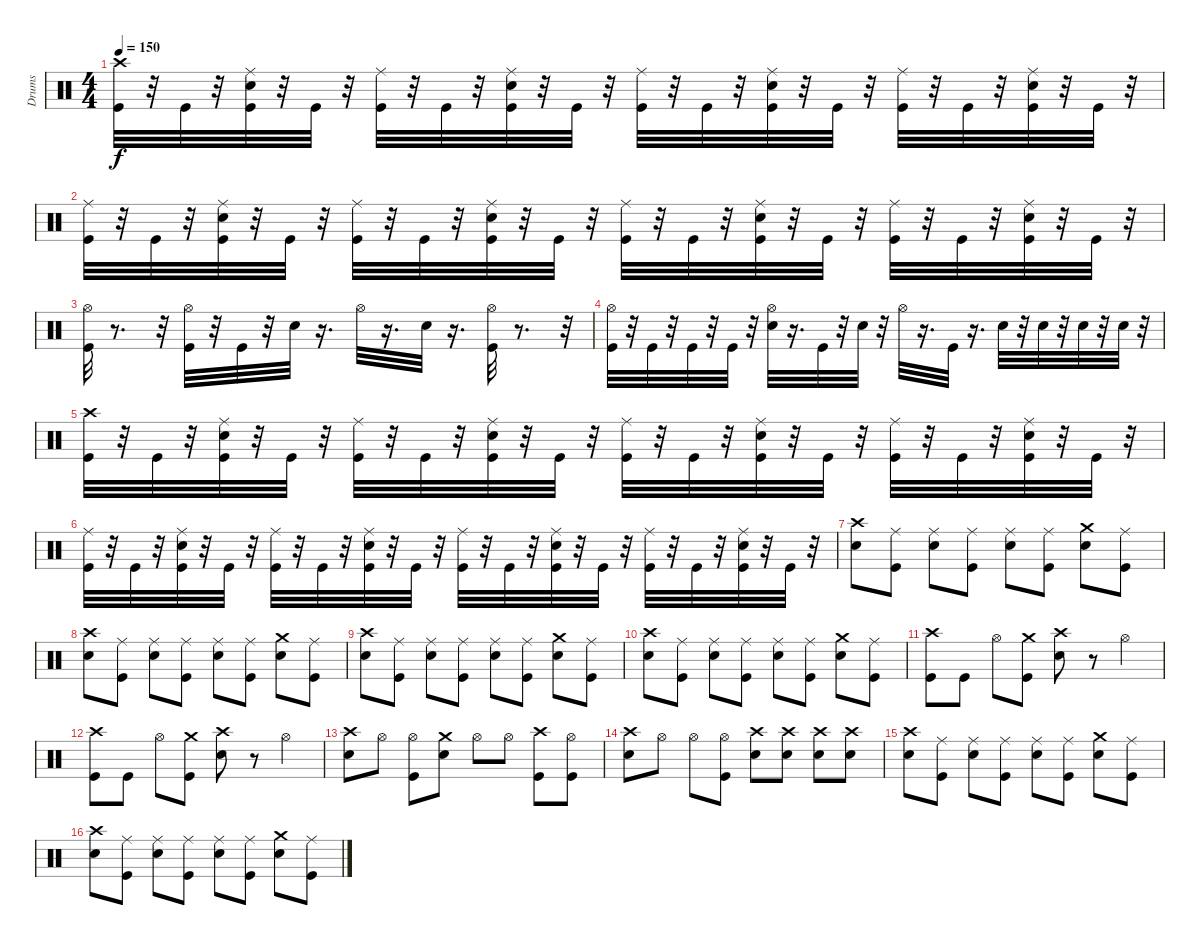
\track ("Drums" "Drums") {instrument percussion}
\staff {score}
\articulation defaults
\ts (4 4)
\tempo 150
\clef neutral
\ks c
("Crash high (hit)" "Kick (hit)").32{dy f} r.32 "Kick (hit)".32 r.32 ("Ride (middle)" "Kick (hit)" "Electric Snare (hit)").32 r.32 "Kick (hit)".32 r.32 ("Ride (middle)" "Kick (hit)").32 r.32 "Kick (hit)".32 r.32 ("Ride (middle)" "Electric Snare (hit)" "Kick (hit)").32 r.32 "Kick (hit)".32 r.32 ("Ride (middle)" "Kick (hit)").32 r.32 "Kick (hit)".32 r.32 ("Ride (middle)" "Kick (hit)" "Electric Snare (hit)").32 r.32 "Kick (hit)".32 r.32 ("Ride (middle)" "Kick (hit)").32 r.32 "Kick (hit)".32 r.32 ("Ride (middle)" "Electric Snare (hit)" "Kick (hit)").32 r.32 "Kick (hit)".32 r.32 |
("Ride (middle)" "Kick (hit)").32 r.32 "Kick (hit)".32 r.32 ("Ride (middle)" "Electric Snare (hit)" "Kick (hit)").32 r.32 "Kick (hit)".32 r.32 ("Ride (middle)" "Kick (hit)").32 r.32 "Kick (hit)".32 r.32 ("Ride (middle)" "Electric Snare (hit)" "Kick (hit)").32 r.32 "Kick (hit)".32 r.32 ("Ride (middle)" "Kick (hit)").32 r.32 "Kick (hit)".32 r.32 ("Ride (middle)" "Electric Snare (hit)" "Kick (hit)").32 r.32 "Kick (hit)".32 r.32 ("Ride (middle)" "Kick (hit)").32 r.32 "Kick (hit)".32 r.32 ("Ride (middle)" "Electric Snare (hit)" "Kick (hit)").32 r.32 "Kick (hit)".32 r.32 |
("Hi-Hat (open)" "Kick (hit)").32 r.8{d} r.32 ("Hi-Hat (open)" "Kick (hit)").32 r.32 "Kick (hit)".32 r.32 "Electric Snare (hit)".32 r.16{d} "Hi-Hat (open)".32 r.16{d} "Electric Snare (hit)".32 r.16{d} ("Hi-Hat (open)" "Kick (hit)").32 r.8{d} r.32 |
("Hi-Hat (open)" "Kick (hit)").32 r.32 "Kick (hit)".32 r.32 "Kick (hit)".32 r.32 "Kick (hit)".32 r.32 ("Hi-Hat (open)" "Electric Snare (hit)").32 r.16{d} "Kick (hit)".32 r.32 "Electric Snare (hit)".32 r.32 "Hi-Hat (open)".32 r.16{d} "Kick (hit)".32 r.16{d} "Electric Snare (hit)".32 r.32 "Electric Snare (hit)".32 r.32 "Electric Snare (hit)".32 r.32 "Electric Snare (hit)".32 r.32 |
("Crash high (hit)" "Kick (hit)").32 r.32 "Kick (hit)".32 r.32 ("Ride (middle)" "Kick (hit)" "Electric Snare (hit)").32 r.32 "Kick (hit)".32 r.32 ("Ride (middle)" "Kick (hit)").32 r.32 "Kick (hit)".32 r.32 ("Ride (middle)" "Electric Snare (hit)" "Kick (hit)").32 r.32 "Kick (hit)".32 r.32 ("Ride (middle)" "Kick (hit)").32 r.32 "Kick (hit)".32 r.32 ("Ride (middle)" "Kick (hit)" "Electric Snare (hit)").32 r.32 "Kick (hit)".32 r.32 ("Ride (middle)" "Kick (hit)").32 r.32 "Kick (hit)".32 r.32 ("Ride (middle)" "Electric Snare (hit)" "Kick (hit)").32 r.32 "Kick (hit)".32 r.32 |
("Ride (middle)" "Kick (hit)").32 r.32 "Kick (hit)".32 r.32 ("Ride (middle)" "Electric Snare (hit)" "Kick (hit)").32 r.32 "Kick (hit)".32 r.32 ("Ride (middle)" "Kick (hit)").32 r.32 "Kick (hit)".32 r.32 ("Ride (middle)" "Electric Snare (hit)" "Kick (hit)").32 r.32 "Kick (hit)".32 r.32 ("Ride (middle)" "Kick (hit)").32 r.32 "Kick (hit)".32 r.32 ("Ride (middle)" "Electric Snare (hit)" "Kick (hit)").32 r.32 "Kick (hit)".32 r.32 ("Ride (middle)" "Kick (hit)").32 r.32 "Kick (hit)".32 r.32 ("Ride (middle)" "Electric Snare (hit)" "Kick (hit)").32 r.32 "Kick (hit)".32 r.32 |
("Crash high (hit)" "Electric Snare (hit)").8 ("Ride (middle)" "Kick (hit)").8 ("Ride (middle)" "Electric Snare (hit)").8 ("Ride (middle)" "Kick (hit)").8 ("Electric Snare (hit)" "Ride (middle)").8 ("Ride (middle)" "Kick (hit)").8 ("Electric Snare (hit)" "Crash medium (hit)").8 ("Ride (middle)" "Kick (hit)").8 |
("Electric Snare (hit)" "Crash high (hit)").8 ("Ride (middle)" "Kick (hit)").8 ("Ride (middle)" "Electric Snare (hit)").8 ("Kick (hit)" "Ride (middle)").8 ("Ride (middle)" "Electric Snare (hit)").8 ("Kick (hit)" "Ride (middle)").8 ("Crash medium (hit)" "Electric Snare (hit)").8 ("Ride (middle)" "Kick (hit)").8 |
("Crash high (hit)" "Electric Snare (hit)").8 ("Ride (middle)" "Kick (hit)").8 ("Electric Snare (hit)" "Ride (middle)").8 ("Ride (middle)" "Kick (hit)").8 ("Electric Snare (hit)" "Ride (middle)").8 ("Ride (middle)" "Kick (hit)").8 ("Crash medium (hit)" "Electric Snare (hit)").8 ("Kick (hit)" "Ride (middle)").8 |
("Crash high (hit)" "Electric Snare (hit)").8 ("Kick (hit)" "Ride (middle)").8 ("Electric Snare (hit)" "Ride (middle)").8 ("Kick (hit)" "Ride (middle)").8 ("Ride (middle)" "Electric Snare (hit)").8 ("Ride (middle)" "Kick (hit)").8 ("Crash medium (hit)" "Electric Snare (hit)").8 ("Ride (middle)" "Kick (hit)").8 |
("Crash high (hit)" "Kick (hit)").8 "Kick (hit)".8 "Hi-Hat (open)".8 ("Kick (hit)" "Crash medium (hit)").8 ("Crash high (hit)" "Electric Snare (hit)").8 r.8 "Hi-Hat (open)".4 |
("Crash high (hit)" "Kick (hit)").8 "Kick (hit)".8 "Hi-Hat (open)".8 ("Crash medium (hit)" "Kick (hit)").8 ("Crash high (hit)" "Electric Snare (hit)").8 r.8 "Hi-Hat (open)".4 |
("Electric Snare (hit)" "Crash high (hit)").8 "Hi-Hat (open)".8 ("Kick (hit)" "Hi-Hat (open)").8 ("Crash medium (hit)" "Electric Snare (hit)").8 "Hi-Hat (open)".8 "Hi-Hat (open)".8 ("Crash high (hit)" "Kick (hit)").8 ("Hi-Hat (open)" "Kick (hit)").8 |
("Electric Snare (hit)" "Crash high (hit)").8 "Hi-Hat (open)".8 "Hi-Hat (open)".8 ("Hi-Hat (open)" "Kick (hit)").8 ("Crash high (hit)" "Electric Snare (hit)").8 ("Crash high (hit)" "Electric Snare (hit)").8 ("Crash high (hit)" "Electric Snare (hit)").8 ("Electric Snare (hit)" "Crash high (hit)").8 |
("Crash high (hit)" "Electric Snare (hit)").8 ("Ride (middle)" "Kick (hit)").8 ("Electric Snare (hit)" "Ride (middle)").8 ("Ride (middle)" "Kick (hit)").8 ("Ride (middle)" "Electric Snare (hit)").8 ("Ride (middle)" "Kick (hit)").8 ("Crash medium (hit)" "Electric Snare (hit)").8 ("Ride (middle)" "Kick (hit)").8 |
("Crash high (hit)" "Electric Snare (hit)").8 ("Kick (hit)" "Ride (middle)").8 ("Ride (middle)" "Electric Snare (hit)").8 ("Kick (hit)" "Ride (middle)").8 ("Ride (middle)" "Electric Snare (hit)").8 ("Kick (hit)" "Ride (middle)").8 ("Crash medium (hit)" "Electric Snare (hit)").8 ("Ride (middle)" "Kick (hit)").8
